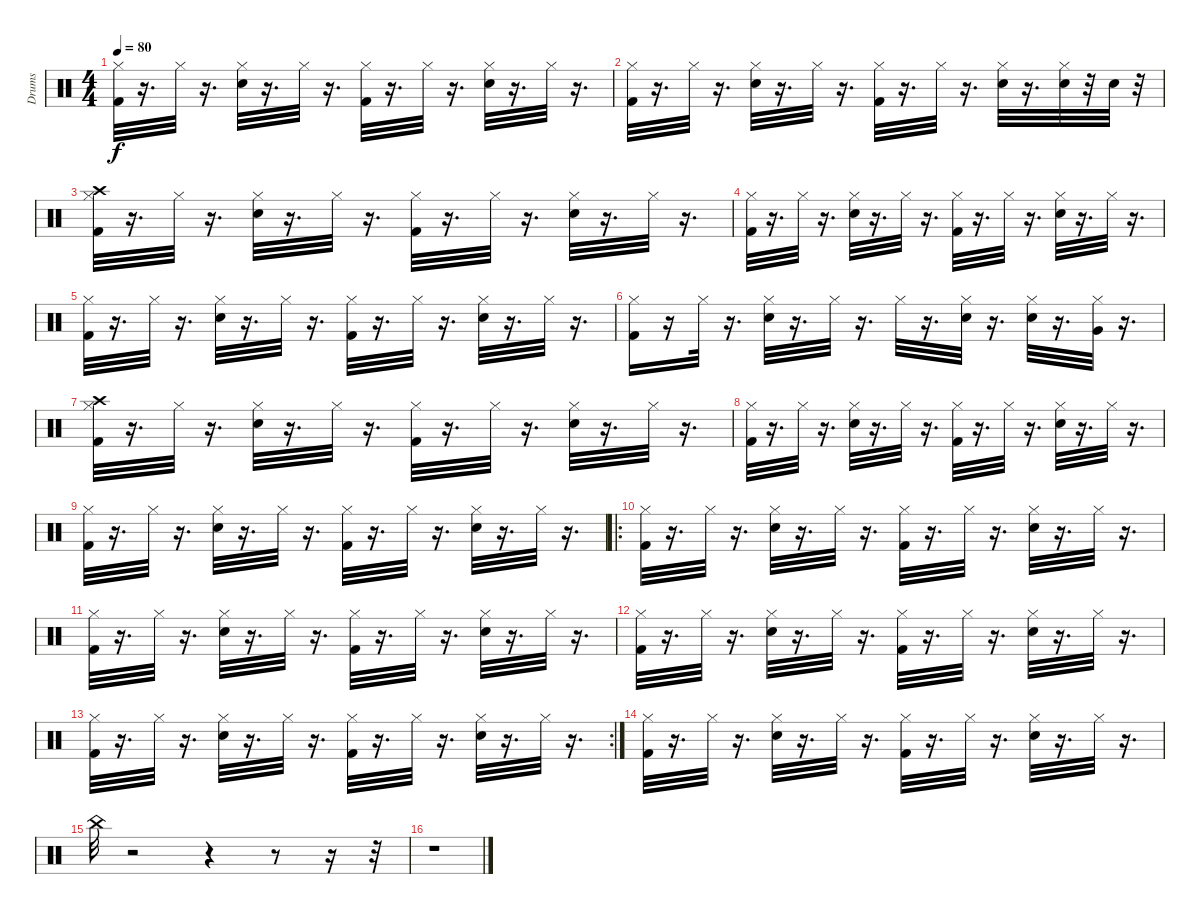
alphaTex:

\track ("Drums" "Drums") {instrument percussion}
\staff {score}
\articulation defaults
\ts (4 4)
\tempo 80
\clef neutral
\ks c
("Hi-Hat (closed)" "Kick (hit) 2").32{dy f} r.16{d} "Hi-Hat (closed)".32 r.16{d} ("Hi-Hat (closed)" "Snare (hit) 2").32 r.16{d} "Hi-Hat (closed)".32 r.16{d} ("Hi-Hat (closed)" "Kick (hit) 2").32 r.16{d} "Hi-Hat (closed)".32 r.16{d} ("Hi-Hat (closed)" "Snare (hit) 2").32 r.16{d} "Hi-Hat (closed)".32 r.16{d} |
("Hi-Hat (closed)" "Kick (hit) 2").32 r.16{d} "Hi-Hat (closed)".32 r.16{d} ("Hi-Hat (closed)" "Snare (hit) 2").32 r.16{d} "Hi-Hat (closed)".32 r.16{d} ("Hi-Hat (closed)" "Kick (hit) 2").32 r.16{d} "Hi-Hat (closed)".32 r.16{d} ("Hi-Hat (closed)" "Snare (hit) 2").32 r.16{d} ("Snare (hit) 2" "Hi-Hat (closed)").32 r.32 "Snare (hit) 2".32 r.32 |
("Crash high (hit)" "Kick (hit) 2" "Hi-Hat (closed)").32 r.16{d} "Hi-Hat (closed)".32 r.16{d} ("Hi-Hat (closed)" "Snare (hit) 2").32 r.16{d} "Hi-Hat (closed)".32 r.16{d} ("Hi-Hat (closed)" "Kick (hit) 2").32 r.16{d} "Hi-Hat (closed)".32 r.16{d} ("Hi-Hat (closed)" "Snare (hit) 2").32 r.16{d} "Hi-Hat (closed)".32 r.16{d} |
("Hi-Hat (closed)" "Kick (hit) 2").32 r.16{d} "Hi-Hat (closed)".32 r.16{d} ("Hi-Hat (closed)" "Snare (hit) 2").32 r.16{d} "Hi-Hat (closed)".32 r.16{d} ("Hi-Hat (closed)" "Kick (hit) 2").32 r.16{d} "Hi-Hat (closed)".32 r.16{d} ("Hi-Hat (closed)" "Snare (hit) 2").32 r.16{d} "Hi-Hat (closed)".32 r.16{d} |
("Hi-Hat (closed)" "Kick (hit) 2").32 r.16{d} "Hi-Hat (closed)".32 r.16{d} ("Hi-Hat (closed)" "Snare (hit) 2").32 r.16{d} "Hi-Hat (closed)".32 r.16{d} ("Hi-Hat (closed)" "Kick (hit) 2").32 r.16{d} "Hi-Hat (closed)".32 r.16{d} ("Hi-Hat (closed)" "Snare (hit) 2").32 r.16{d} "Hi-Hat (closed)".32 r.16{d} |
("Kick (hit) 2" "Hi-Hat (closed)").16 r.16 "Hi-Hat (closed)".32 r.16{d} ("Snare (hit) 2" "Hi-Hat (closed)").32 r.16{d} "Hi-Hat (closed)".32 r.16{d} "Hi-Hat (closed)".32 r.16{d} ("Hi-Hat (closed)" "Snare (hit) 2").32 r.16{d} ("Hi-Hat (closed)" "Snare (hit) 2").32 r.16{d} ("Hi-Hat (closed)" "Very Low Tom (hit)").32 r.16{d} |
("Hi-Hat (closed)" "Kick (hit) 2" "Crash high (hit)").32 r.16{d} "Hi-Hat (closed)".32 r.16{d} ("Hi-Hat (closed)" "Snare (hit) 2").32 r.16{d} "Hi-Hat (closed)".32 r.16{d} ("Hi-Hat (closed)" "Kick (hit) 2").32 r.16{d} "Hi-Hat (closed)".32 r.16{d} ("Hi-Hat (closed)" "Snare (hit) 2").32 r.16{d} "Hi-Hat (closed)".32 r.16{d} |
("Kick (hit) 2" "Hi-Hat (closed)").32 r.16{d} "Hi-Hat (closed)".32 r.16{d} ("Hi-Hat (closed)" "Snare (hit) 2").32 r.16{d} "Hi-Hat (closed)".32 r.16{d} ("Hi-Hat (closed)" "Kick (hit) 2").32 r.16{d} "Hi-Hat (closed)".32 r.16{d} ("Hi-Hat (closed)" "Snare (hit) 2").32 r.16{d} "Hi-Hat (closed)".32 r.16{d} |
("Hi-Hat (closed)" "Kick (hit) 2").32 r.16{d} "Hi-Hat (closed)".32 r.16{d} ("Hi-Hat (closed)" "Snare (hit) 2").32 r.16{d} "Hi-Hat (closed)".32 r.16{d} ("Hi-Hat (closed)" "Kick (hit) 2").32 r.16{d} "Hi-Hat (closed)".32 r.16{d} ("Hi-Hat (closed)" "Snare (hit) 2").32 r.16{d} "Hi-Hat (closed)".32 r.16{d} |
\ro
("Hi-Hat (closed)" "Kick (hit) 2").32 r.16{d} "Hi-Hat (closed)".32 r.16{d} ("Hi-Hat (closed)" "Snare (hit) 2").32 r.16{d} "Hi-Hat (closed)".32 r.16{d} ("Hi-Hat (closed)" "Kick (hit) 2").32 r.16{d} "Hi-Hat (closed)".32 r.16{d} ("Hi-Hat (closed)" "Snare (hit) 2").32 r.16{d} "Hi-Hat (closed)".32 r.16{d} |
("Kick (hit) 2" "Hi-Hat (closed)").32 r.16{d} "Hi-Hat (closed)".32 r.16{d} ("Hi-Hat (closed)" "Snare (hit) 2").32 r.16{d} "Hi-Hat (closed)".32 r.16{d} ("Hi-Hat (closed)" "Kick (hit) 2").32 r.16{d} "Hi-Hat (closed)".32 r.16{d} ("Hi-Hat (closed)" "Snare (hit) 2").32 r.16{d} "Hi-Hat (closed)".32 r.16{d} |
("Hi-Hat (closed)" "Kick (hit) 2").32 r.16{d} "Hi-Hat (closed)".32 r.16{d} ("Hi-Hat (closed)" "Snare (hit) 2").32 r.16{d} "Hi-Hat (closed)".32 r.16{d} ("Hi-Hat (closed)" "Kick (hit) 2").32 r.16{d} "Hi-Hat (closed)".32 r.16{d} ("Hi-Hat (closed)" "Snare (hit) 2").32 r.16{d} "Hi-Hat (closed)".32 r.16{d} |
\rc 2
("Hi-Hat (closed)" "Kick (hit) 2").32 r.16{d} "Hi-Hat (closed)".32 r.16{d} ("Hi-Hat (closed)" "Snare (hit) 2").32 r.16{d} "Hi-Hat (closed)".32 r.16{d} ("Hi-Hat (closed)" "Kick (hit) 2").32 r.16{d} "Hi-Hat (closed)".32 r.16{d} ("Hi-Hat (closed)" "Snare (hit) 2").32 r.16{d} "Hi-Hat (closed)".32 r.16{d} |
("Hi-Hat (closed)" "Kick (hit) 2").32 r.16{d} "Hi-Hat (closed)".32 r.16{d} ("Hi-Hat (closed)" "Snare (hit) 2").32 r.16{d} "Hi-Hat (closed)".32 r.16{d} ("Hi-Hat (closed)" "Kick (hit) 2").32 r.16{d} "Hi-Hat (closed)".32 r.16{d} ("Hi-Hat (closed)" "Snare (hit) 2").32 r.16{d} "Hi-Hat (closed)".32 r.16{d} |
"China (hit)".32 r.2 r.4 r.8 r.16 r.32 |
r.1
